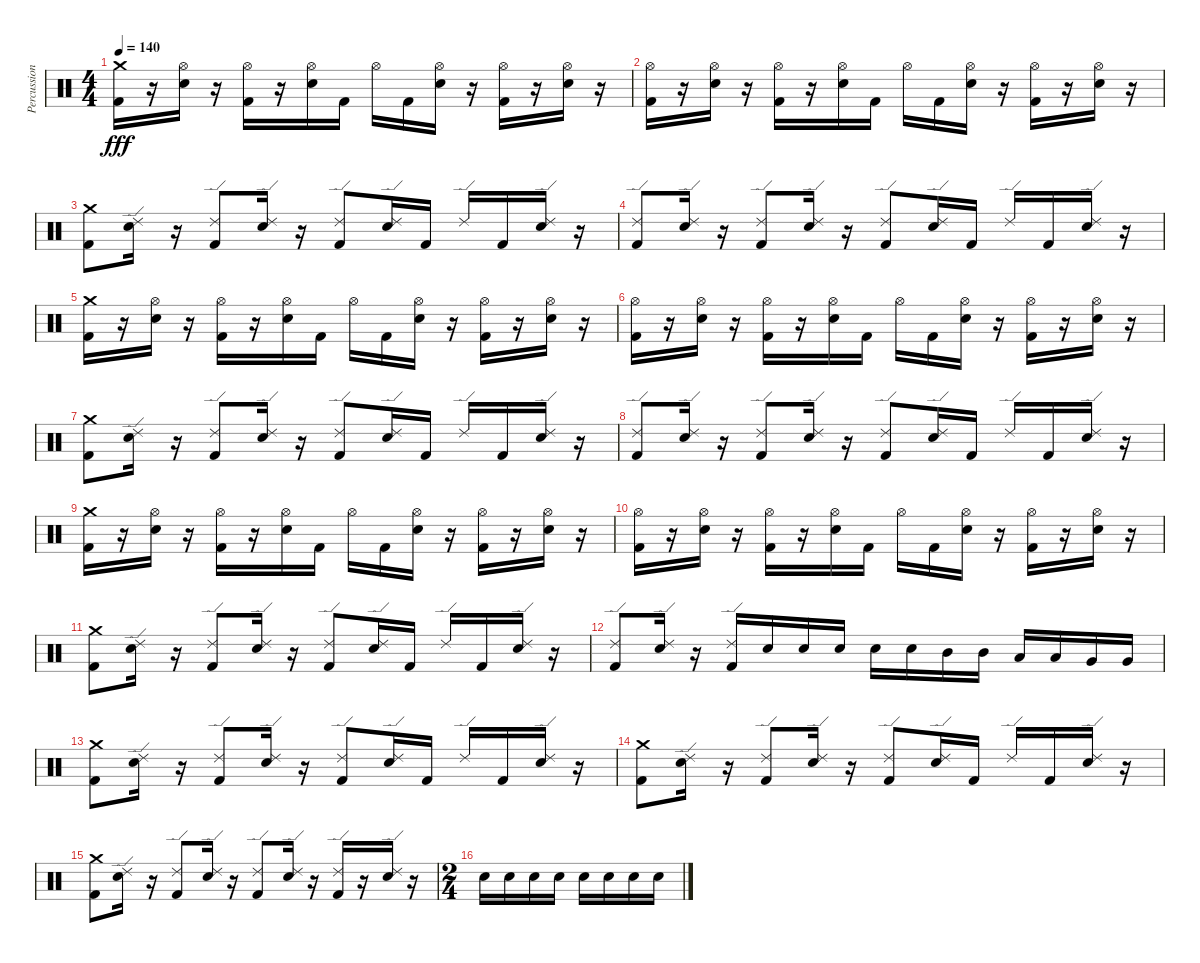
\track ("Percussion" "Percussion") {instrument percussion}
\staff {score}
\articulation defaults
\ts (4 4)
\tempo 140
\clef neutral
\ks c
("Kick (hit) 2" "Crash medium (hit)").16{dy fff} r.16 ("Hi-Hat (open)" "Snare (hit) 2").16 r.16 ("Hi-Hat (open)" "Kick (hit) 2").16 r.16 ("Hi-Hat (open)" "Snare (hit) 2").16 "Kick (hit) 2".16 "Hi-Hat (open)".16 "Kick (hit) 2".16 ("Hi-Hat (open)" "Snare (hit) 2").16 r.16 ("Hi-Hat (open)" "Kick (hit) 2").16 r.16 ("Hi-Hat (open)" "Snare (hit) 2").16 r.16 |
("Hi-Hat (open)" "Kick (hit) 2").16 r.16 ("Hi-Hat (open)" "Snare (hit) 2").16 r.16 ("Hi-Hat (open)" "Kick (hit) 2").16 r.16 ("Hi-Hat (open)" "Snare (hit) 2").16 "Kick (hit) 2".16 "Hi-Hat (open)".16 "Kick (hit) 2".16 ("Hi-Hat (open)" "Snare (hit) 2").16 r.16 ("Hi-Hat (open)" "Kick (hit) 2").16 r.16 ("Hi-Hat (open)" "Snare (hit) 2").16 r.16 |
("Kick (hit) 2" "Crash medium (hit)").8 ("Snare (hit) 2" "Ride (edge) 2").16 r.16 ("Kick (hit) 2" "Ride (edge) 2").8 ("Snare (hit) 2" "Ride (edge) 2").16 r.16 ("Kick (hit) 2" "Ride (edge) 2").8 ("Snare (hit) 2" "Ride (edge) 2").16 "Kick (hit) 2".16 "Ride (edge) 2".16 "Kick (hit) 2".16 ("Snare (hit) 2" "Ride (edge) 2").16 r.16 |
("Kick (hit) 2" "Ride (edge) 2").8 ("Snare (hit) 2" "Ride (edge) 2").16 r.16 ("Kick (hit) 2" "Ride (edge) 2").8 ("Snare (hit) 2" "Ride (edge) 2").16 r.16 ("Kick (hit) 2" "Ride (edge) 2").8 ("Snare (hit) 2" "Ride (edge) 2").16 "Kick (hit) 2".16 "Ride (edge) 2".16 "Kick (hit) 2".16 ("Snare (hit) 2" "Ride (edge) 2").16 r.16 |
("Kick (hit) 2" "Crash medium (hit)").16 r.16 ("Hi-Hat (open)" "Snare (hit) 2").16 r.16 ("Hi-Hat (open)" "Kick (hit) 2").16 r.16 ("Hi-Hat (open)" "Snare (hit) 2").16 "Kick (hit) 2".16 "Hi-Hat (open)".16 "Kick (hit) 2".16 ("Hi-Hat (open)" "Snare (hit) 2").16 r.16 ("Hi-Hat (open)" "Kick (hit) 2").16 r.16 ("Hi-Hat (open)" "Snare (hit) 2").16 r.16 |
("Hi-Hat (open)" "Kick (hit) 2").16 r.16 ("Hi-Hat (open)" "Snare (hit) 2").16 r.16 ("Hi-Hat (open)" "Kick (hit) 2").16 r.16 ("Hi-Hat (open)" "Snare (hit) 2").16 "Kick (hit) 2".16 "Hi-Hat (open)".16 "Kick (hit) 2".16 ("Hi-Hat (open)" "Snare (hit) 2").16 r.16 ("Hi-Hat (open)" "Kick (hit) 2").16 r.16 ("Hi-Hat (open)" "Snare (hit) 2").16 r.16 |
("Kick (hit) 2" "Crash medium (hit)").8 ("Snare (hit) 2" "Ride (edge) 2").16 r.16 ("Kick (hit) 2" "Ride (edge) 2").8 ("Snare (hit) 2" "Ride (edge) 2").16 r.16 ("Kick (hit) 2" "Ride (edge) 2").8 ("Snare (hit) 2" "Ride (edge) 2").16 "Kick (hit) 2".16 "Ride (edge) 2".16 "Kick (hit) 2".16 ("Snare (hit) 2" "Ride (edge) 2").16 r.16 |
("Kick (hit) 2" "Ride (edge) 2").8 ("Snare (hit) 2" "Ride (edge) 2").16 r.16 ("Kick (hit) 2" "Ride (edge) 2").8 ("Snare (hit) 2" "Ride (edge) 2").16 r.16 ("Kick (hit) 2" "Ride (edge) 2").8 ("Snare (hit) 2" "Ride (edge) 2").16 "Kick (hit) 2".16 "Ride (edge) 2".16 "Kick (hit) 2".16 ("Snare (hit) 2" "Ride (edge) 2").16 r.16 |
("Kick (hit) 2" "Crash medium (hit)").16 r.16 ("Hi-Hat (open)" "Snare (hit) 2").16 r.16 ("Hi-Hat (open)" "Kick (hit) 2").16 r.16 ("Hi-Hat (open)" "Snare (hit) 2").16 "Kick (hit) 2".16 "Hi-Hat (open)".16 "Kick (hit) 2".16 ("Hi-Hat (open)" "Snare (hit) 2").16 r.16 ("Hi-Hat (open)" "Kick (hit) 2").16 r.16 ("Hi-Hat (open)" "Snare (hit) 2").16 r.16 |
("Hi-Hat (open)" "Kick (hit) 2").16 r.16 ("Hi-Hat (open)" "Snare (hit) 2").16 r.16 ("Hi-Hat (open)" "Kick (hit) 2").16 r.16 ("Hi-Hat (open)" "Snare (hit) 2").16 "Kick (hit) 2".16 "Hi-Hat (open)".16 "Kick (hit) 2".16 ("Hi-Hat (open)" "Snare (hit) 2").16 r.16 ("Hi-Hat (open)" "Kick (hit) 2").16 r.16 ("Hi-Hat (open)" "Snare (hit) 2").16 r.16 |
("Kick (hit) 2" "Crash medium (hit)").8 ("Snare (hit) 2" "Ride (edge) 2").16 r.16 ("Kick (hit) 2" "Ride (edge) 2").8 ("Snare (hit) 2" "Ride (edge) 2").16 r.16 ("Kick (hit) 2" "Ride (edge) 2").8 ("Snare (hit) 2" "Ride (edge) 2").16 "Kick (hit) 2".16 "Ride (edge) 2".16 "Kick (hit) 2".16 ("Snare (hit) 2" "Ride (edge) 2").16 r.16 |
("Kick (hit) 2" "Ride (edge) 2").8 ("Snare (hit) 2" "Ride (edge) 2").16 r.16 ("Kick (hit) 2" "Ride (edge) 2").16 "Snare (hit) 2".16 "Snare (hit) 2".16 "Snare (hit) 2".16 "Snare (hit) 2".16 "Snare (hit) 2".16 "Mid Tom (hit)".16 "Mid Tom (hit)".16 "Low Tom (hit)".16 "Low Tom (hit)".16 "Very Low Tom (hit)".16 "Very Low Tom (hit)".16 |
("Kick (hit) 2" "Crash medium (hit)").8 ("Snare (hit) 2" "Ride (edge) 2").16 r.16 ("Kick (hit) 2" "Ride (edge) 2").8 ("Snare (hit) 2" "Ride (edge) 2").16 r.16 ("Kick (hit) 2" "Ride (edge) 2").8 ("Snare (hit) 2" "Ride (edge) 2").16 "Kick (hit) 2".16 "Ride (edge) 2".16 "Kick (hit) 2".16 ("Snare (hit) 2" "Ride (edge) 2").16 r.16 |
("Kick (hit) 2" "Crash medium (hit)").8 ("Snare (hit) 2" "Ride (edge) 2").16 r.16 ("Kick (hit) 2" "Ride (edge) 2").8 ("Snare (hit) 2" "Ride (edge) 2").16 r.16 ("Kick (hit) 2" "Ride (edge) 2").8 ("Snare (hit) 2" "Ride (edge) 2").16 "Kick (hit) 2".16 "Ride (edge) 2".16 "Kick (hit) 2".16 ("Snare (hit) 2" "Ride (edge) 2").16 r.16 |
("Kick (hit) 2" "Crash medium (hit)").8 ("Snare (hit) 2" "Ride (edge) 2").16 r.16 ("Kick (hit) 2" "Ride (edge) 2").8 ("Snare (hit) 2" "Ride (edge) 2").16 r.16 ("Kick (hit) 2" "Ride (edge) 2").8 ("Snare (hit) 2" "Ride (edge) 2").16 r.16 ("Ride (edge) 2" "Kick (hit) 2").16 r.16 ("Snare (hit) 2" "Ride (edge) 2").16 r.16 |
\ts (2 4)
"Snare (hit) 2".16 "Snare (hit) 2".16 "Snare (hit) 2".16 "Snare (hit) 2".16 "Snare (hit) 2".16 "Snare (hit) 2".16 "Snare (hit) 2".16 "Snare (hit) 2".16
